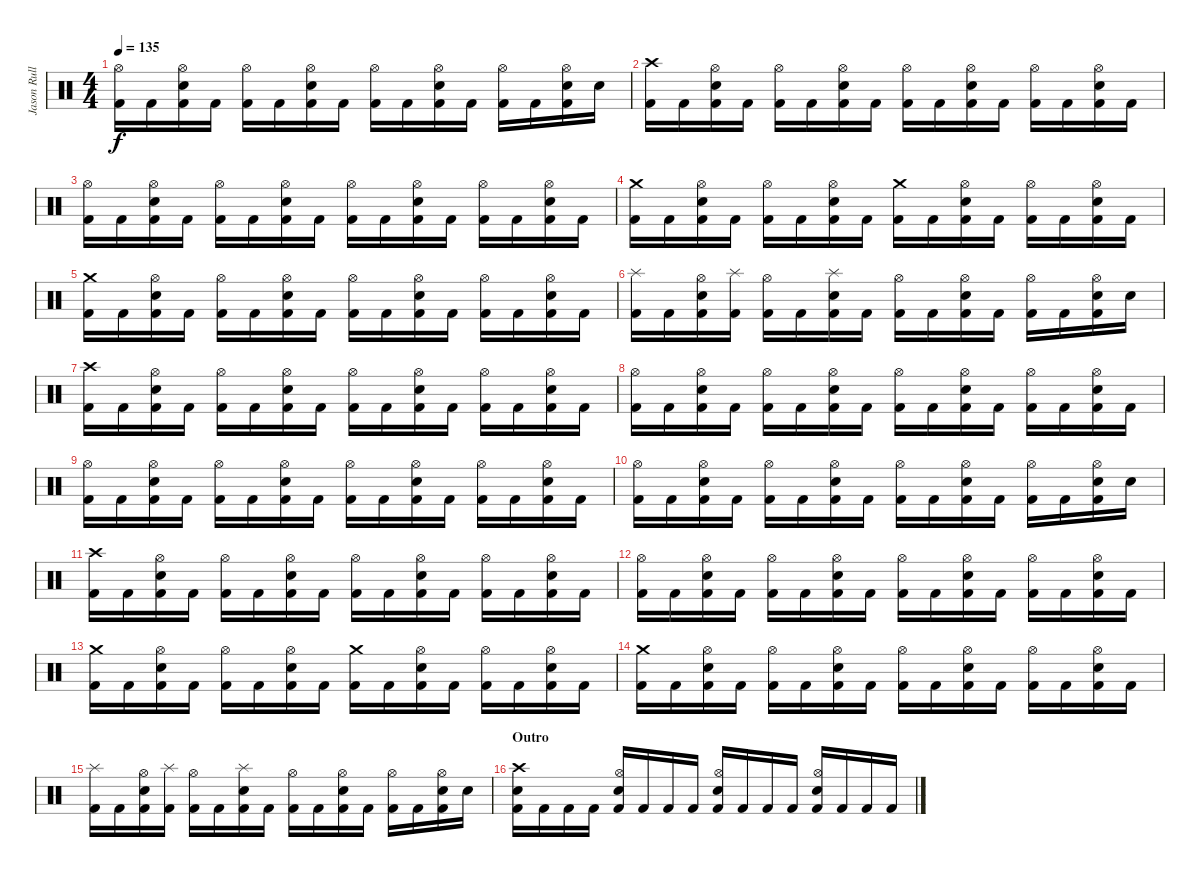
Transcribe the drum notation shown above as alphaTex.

\track ("Jason Rullo" "Jason Rull") {instrument percussion}
\staff {score}
\articulation defaults
\ts (4 4)
\tempo 135
\clef neutral
\ks c
("Kick (hit) 2" "Hi-Hat (open)").16{dy f} "Kick (hit) 2".16 ("Kick (hit) 2" "Electric Snare (hit)" "Hi-Hat (open)").16 "Kick (hit) 2".16 ("Kick (hit) 2" "Hi-Hat (open)").16 "Kick (hit) 2".16 ("Kick (hit) 2" "Electric Snare (hit)" "Hi-Hat (open)").16 "Kick (hit) 2".16 ("Kick (hit) 2" "Hi-Hat (open)").16 "Kick (hit) 2".16 ("Kick (hit) 2" "Electric Snare (hit)" "Hi-Hat (open)").16 "Kick (hit) 2".16 ("Kick (hit) 2" "Hi-Hat (open)").16 "Kick (hit) 2".16 ("Kick (hit) 2" "Electric Snare (hit)" "Hi-Hat (open)").16 "Electric Snare (hit)".16 |
("Kick (hit) 2" "Crash high (hit)").16 "Kick (hit) 2".16 ("Hi-Hat (open)" "Electric Snare (hit)" "Kick (hit) 2").16 "Kick (hit) 2".16 ("Hi-Hat (open)" "Kick (hit) 2").16 "Kick (hit) 2".16 ("Hi-Hat (open)" "Electric Snare (hit)" "Kick (hit) 2").16 "Kick (hit) 2".16 ("Hi-Hat (open)" "Kick (hit) 2").16 "Kick (hit) 2".16 ("Hi-Hat (open)" "Electric Snare (hit)" "Kick (hit) 2").16 "Kick (hit) 2".16 ("Hi-Hat (open)" "Kick (hit) 2").16 "Kick (hit) 2".16 ("Hi-Hat (open)" "Electric Snare (hit)" "Kick (hit) 2").16 "Kick (hit) 2".16 |
("Kick (hit) 2" "Hi-Hat (open)").16 "Kick (hit) 2".16 ("Kick (hit) 2" "Electric Snare (hit)" "Hi-Hat (open)").16 "Kick (hit) 2".16 ("Kick (hit) 2" "Hi-Hat (open)").16 "Kick (hit) 2".16 ("Kick (hit) 2" "Electric Snare (hit)" "Hi-Hat (open)").16 "Kick (hit) 2".16 ("Kick (hit) 2" "Hi-Hat (open)").16 "Kick (hit) 2".16 ("Kick (hit) 2" "Electric Snare (hit)" "Hi-Hat (open)").16 "Kick (hit) 2".16 ("Kick (hit) 2" "Hi-Hat (open)").16 "Kick (hit) 2".16 ("Kick (hit) 2" "Electric Snare (hit)" "Hi-Hat (open)").16 "Kick (hit) 2".16 |
("Crash medium (hit)" "Kick (hit) 2").16 "Kick (hit) 2".16 ("Kick (hit) 2" "Electric Snare (hit)" "Hi-Hat (open)").16 "Kick (hit) 2".16 ("Kick (hit) 2" "Hi-Hat (open)").16 "Kick (hit) 2".16 ("Kick (hit) 2" "Electric Snare (hit)" "Hi-Hat (open)").16 "Kick (hit) 2".16 ("Crash medium (hit)" "Kick (hit) 2").16 "Kick (hit) 2".16 ("Kick (hit) 2" "Electric Snare (hit)" "Hi-Hat (open)").16 "Kick (hit) 2".16 ("Kick (hit) 2" "Hi-Hat (open)").16 "Kick (hit) 2".16 ("Kick (hit) 2" "Electric Snare (hit)" "Hi-Hat (open)").16 "Kick (hit) 2".16 |
("Crash medium (hit)" "Kick (hit) 2").16 "Kick (hit) 2".16 ("Kick (hit) 2" "Electric Snare (hit)" "Hi-Hat (open)").16 "Kick (hit) 2".16 ("Kick (hit) 2" "Hi-Hat (open)").16 "Kick (hit) 2".16 ("Kick (hit) 2" "Electric Snare (hit)" "Hi-Hat (open)").16 "Kick (hit) 2".16 ("Kick (hit) 2" "Hi-Hat (open)").16 "Kick (hit) 2".16 ("Kick (hit) 2" "Electric Snare (hit)" "Hi-Hat (open)").16 "Kick (hit) 2".16 ("Kick (hit) 2" "Hi-Hat (open)").16 "Kick (hit) 2".16 ("Kick (hit) 2" "Electric Snare (hit)" "Hi-Hat (open)").16 "Kick (hit) 2".16 |
("Splash (hit)" "Kick (hit) 2").16 "Kick (hit) 2".16 ("Hi-Hat (open)" "Kick (hit) 2" "Electric Snare (hit)").16 ("Splash (hit)" "Kick (hit) 2").16 ("Hi-Hat (open)" "Kick (hit) 2").16 "Kick (hit) 2".16 ("Splash (hit)" "Kick (hit) 2" "Electric Snare (hit)").16 "Kick (hit) 2".16 ("Kick (hit) 2" "Hi-Hat (open)").16 "Kick (hit) 2".16 ("Kick (hit) 2" "Electric Snare (hit)" "Hi-Hat (open)").16 "Kick (hit) 2".16 ("Kick (hit) 2" "Hi-Hat (open)").16 "Kick (hit) 2".16 ("Kick (hit) 2" "Electric Snare (hit)" "Hi-Hat (open)").16 "Electric Snare (hit)".16 |
("Kick (hit) 2" "Crash high (hit)").16 "Kick (hit) 2".16 ("Hi-Hat (open)" "Electric Snare (hit)" "Kick (hit) 2").16 "Kick (hit) 2".16 ("Hi-Hat (open)" "Kick (hit) 2").16 "Kick (hit) 2".16 ("Hi-Hat (open)" "Electric Snare (hit)" "Kick (hit) 2").16 "Kick (hit) 2".16 ("Hi-Hat (open)" "Kick (hit) 2").16 "Kick (hit) 2".16 ("Hi-Hat (open)" "Electric Snare (hit)" "Kick (hit) 2").16 "Kick (hit) 2".16 ("Hi-Hat (open)" "Kick (hit) 2").16 "Kick (hit) 2".16 ("Hi-Hat (open)" "Electric Snare (hit)" "Kick (hit) 2").16 "Kick (hit) 2".16 |
("Kick (hit) 2" "Hi-Hat (open)").16 "Kick (hit) 2".16 ("Kick (hit) 2" "Electric Snare (hit)" "Hi-Hat (open)").16 "Kick (hit) 2".16 ("Kick (hit) 2" "Hi-Hat (open)").16 "Kick (hit) 2".16 ("Kick (hit) 2" "Electric Snare (hit)" "Hi-Hat (open)").16 "Kick (hit) 2".16 ("Kick (hit) 2" "Hi-Hat (open)").16 "Kick (hit) 2".16 ("Kick (hit) 2" "Electric Snare (hit)" "Hi-Hat (open)").16 "Kick (hit) 2".16 ("Kick (hit) 2" "Hi-Hat (open)").16 "Kick (hit) 2".16 ("Kick (hit) 2" "Electric Snare (hit)" "Hi-Hat (open)").16 "Kick (hit) 2".16 |
("Kick (hit) 2" "Hi-Hat (open)").16 "Kick (hit) 2".16 ("Kick (hit) 2" "Electric Snare (hit)" "Hi-Hat (open)").16 "Kick (hit) 2".16 ("Kick (hit) 2" "Hi-Hat (open)").16 "Kick (hit) 2".16 ("Kick (hit) 2" "Electric Snare (hit)" "Hi-Hat (open)").16 "Kick (hit) 2".16 ("Kick (hit) 2" "Hi-Hat (open)").16 "Kick (hit) 2".16 ("Kick (hit) 2" "Electric Snare (hit)" "Hi-Hat (open)").16 "Kick (hit) 2".16 ("Kick (hit) 2" "Hi-Hat (open)").16 "Kick (hit) 2".16 ("Kick (hit) 2" "Electric Snare (hit)" "Hi-Hat (open)").16 "Kick (hit) 2".16 |
("Kick (hit) 2" "Hi-Hat (open)").16 "Kick (hit) 2".16 ("Kick (hit) 2" "Electric Snare (hit)" "Hi-Hat (open)").16 "Kick (hit) 2".16 ("Kick (hit) 2" "Hi-Hat (open)").16 "Kick (hit) 2".16 ("Kick (hit) 2" "Electric Snare (hit)" "Hi-Hat (open)").16 "Kick (hit) 2".16 ("Kick (hit) 2" "Hi-Hat (open)").16 "Kick (hit) 2".16 ("Kick (hit) 2" "Electric Snare (hit)" "Hi-Hat (open)").16 "Kick (hit) 2".16 ("Kick (hit) 2" "Hi-Hat (open)").16 "Kick (hit) 2".16 ("Kick (hit) 2" "Electric Snare (hit)" "Hi-Hat (open)").16 "Electric Snare (hit)".16 |
("Kick (hit) 2" "Crash high (hit)").16 "Kick (hit) 2".16 ("Hi-Hat (open)" "Electric Snare (hit)" "Kick (hit) 2").16 "Kick (hit) 2".16 ("Hi-Hat (open)" "Kick (hit) 2").16 "Kick (hit) 2".16 ("Hi-Hat (open)" "Electric Snare (hit)" "Kick (hit) 2").16 "Kick (hit) 2".16 ("Hi-Hat (open)" "Kick (hit) 2").16 "Kick (hit) 2".16 ("Hi-Hat (open)" "Electric Snare (hit)" "Kick (hit) 2").16 "Kick (hit) 2".16 ("Hi-Hat (open)" "Kick (hit) 2").16 "Kick (hit) 2".16 ("Hi-Hat (open)" "Electric Snare (hit)" "Kick (hit) 2").16 "Kick (hit) 2".16 |
("Kick (hit) 2" "Hi-Hat (open)").16 "Kick (hit) 2".16 ("Kick (hit) 2" "Electric Snare (hit)" "Hi-Hat (open)").16 "Kick (hit) 2".16 ("Kick (hit) 2" "Hi-Hat (open)").16 "Kick (hit) 2".16 ("Kick (hit) 2" "Electric Snare (hit)" "Hi-Hat (open)").16 "Kick (hit) 2".16 ("Kick (hit) 2" "Hi-Hat (open)").16 "Kick (hit) 2".16 ("Kick (hit) 2" "Electric Snare (hit)" "Hi-Hat (open)").16 "Kick (hit) 2".16 ("Kick (hit) 2" "Hi-Hat (open)").16 "Kick (hit) 2".16 ("Kick (hit) 2" "Electric Snare (hit)" "Hi-Hat (open)").16 "Kick (hit) 2".16 |
("Crash medium (hit)" "Kick (hit) 2").16 "Kick (hit) 2".16 ("Kick (hit) 2" "Electric Snare (hit)" "Hi-Hat (open)").16 "Kick (hit) 2".16 ("Kick (hit) 2" "Hi-Hat (open)").16 "Kick (hit) 2".16 ("Kick (hit) 2" "Electric Snare (hit)" "Hi-Hat (open)").16 "Kick (hit) 2".16 ("Crash medium (hit)" "Kick (hit) 2").16 "Kick (hit) 2".16 ("Kick (hit) 2" "Electric Snare (hit)" "Hi-Hat (open)").16 "Kick (hit) 2".16 ("Kick (hit) 2" "Hi-Hat (open)").16 "Kick (hit) 2".16 ("Kick (hit) 2" "Electric Snare (hit)" "Hi-Hat (open)").16 "Kick (hit) 2".16 |
("Crash medium (hit)" "Kick (hit) 2").16 "Kick (hit) 2".16 ("Kick (hit) 2" "Electric Snare (hit)" "Hi-Hat (open)").16 "Kick (hit) 2".16 ("Kick (hit) 2" "Hi-Hat (open)").16 "Kick (hit) 2".16 ("Kick (hit) 2" "Electric Snare (hit)" "Hi-Hat (open)").16 "Kick (hit) 2".16 ("Kick (hit) 2" "Hi-Hat (open)").16 "Kick (hit) 2".16 ("Kick (hit) 2" "Electric Snare (hit)" "Hi-Hat (open)").16 "Kick (hit) 2".16 ("Kick (hit) 2" "Hi-Hat (open)").16 "Kick (hit) 2".16 ("Kick (hit) 2" "Electric Snare (hit)" "Hi-Hat (open)").16 "Kick (hit) 2".16 |
("Splash (hit)" "Kick (hit) 2").16 "Kick (hit) 2".16 ("Hi-Hat (open)" "Kick (hit) 2" "Electric Snare (hit)").16 ("Splash (hit)" "Kick (hit) 2").16 ("Hi-Hat (open)" "Kick (hit) 2").16 "Kick (hit) 2".16 ("Splash (hit)" "Kick (hit) 2" "Electric Snare (hit)").16 "Kick (hit) 2".16 ("Kick (hit) 2" "Hi-Hat (open)").16 "Kick (hit) 2".16 ("Kick (hit) 2" "Electric Snare (hit)" "Hi-Hat (open)").16 "Kick (hit) 2".16 ("Kick (hit) 2" "Hi-Hat (open)").16 "Kick (hit) 2".16 ("Kick (hit) 2" "Electric Snare (hit)" "Hi-Hat (open)").16 "Electric Snare (hit)".16 |
\section ("" "Outro")
("Crash high (hit)" "Kick (hit) 2" "Electric Snare (hit)").16 "Kick (hit) 2".16 "Kick (hit) 2".16 "Kick (hit) 2".16 ("Hi-Hat (open)" "Kick (hit) 2" "Electric Snare (hit)").16 "Kick (hit) 2".16 "Kick (hit) 2".16 "Kick (hit) 2".16 ("Hi-Hat (open)" "Kick (hit) 2" "Electric Snare (hit)").16 "Kick (hit) 2".16 "Kick (hit) 2".16 "Kick (hit) 2".16 ("Hi-Hat (open)" "Kick (hit) 2" "Electric Snare (hit)").16 "Kick (hit) 2".16 "Kick (hit) 2".16 "Kick (hit) 2".16
